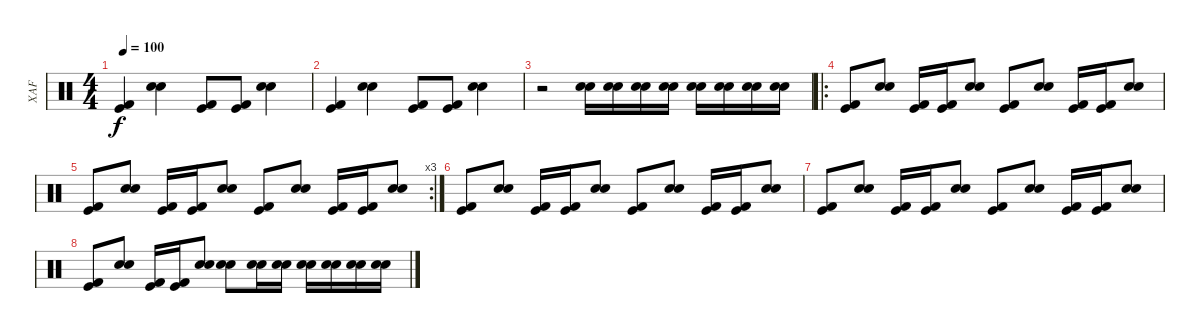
\track ("XAF" "XAF") {instrument percussion}
\staff {score}
\articulation defaults
\ts (4 4)
\tempo 100
\clef neutral
\ks c
("Kick (hit) 2" "Kick (hit)").4{dy f} ("Electric Snare (hit)" "Snare (hit) 2").4 ("Kick (hit) 2" "Kick (hit)").8 ("Kick (hit) 2" "Kick (hit)").8 ("Electric Snare (hit)" "Snare (hit) 2").4 |
("Kick (hit) 2" "Kick (hit)").4 ("Electric Snare (hit)" "Snare (hit) 2").4 ("Kick (hit) 2" "Kick (hit)").8 ("Kick (hit) 2" "Kick (hit)").8 ("Electric Snare (hit)" "Snare (hit) 2").4 |
r.2 ("Electric Snare (hit)" "Snare (hit) 2").16 ("Electric Snare (hit)" "Snare (hit) 2").16 ("Electric Snare (hit)" "Snare (hit) 2").16 ("Electric Snare (hit)" "Snare (hit) 2").16 ("Electric Snare (hit)" "Snare (hit) 2").16 ("Electric Snare (hit)" "Snare (hit) 2").16 ("Electric Snare (hit)" "Snare (hit) 2").16 ("Electric Snare (hit)" "Snare (hit) 2").16 |
\ro
("Kick (hit) 2" "Kick (hit)").8 ("Electric Snare (hit)" "Snare (hit) 2").8 ("Kick (hit) 2" "Kick (hit)").16 ("Kick (hit) 2" "Kick (hit)").16 ("Electric Snare (hit)" "Snare (hit) 2").8 ("Kick (hit) 2" "Kick (hit)").8 ("Electric Snare (hit)" "Snare (hit) 2").8 ("Kick (hit) 2" "Kick (hit)").16 ("Kick (hit) 2" "Kick (hit)").16 ("Electric Snare (hit)" "Snare (hit) 2").8 |
\rc 3
("Kick (hit) 2" "Kick (hit)").8 ("Electric Snare (hit)" "Snare (hit) 2").8 ("Kick (hit) 2" "Kick (hit)").16 ("Kick (hit) 2" "Kick (hit)").16 ("Electric Snare (hit)" "Snare (hit) 2").8 ("Kick (hit) 2" "Kick (hit)").8 ("Electric Snare (hit)" "Snare (hit) 2").8 ("Kick (hit) 2" "Kick (hit)").16 ("Kick (hit) 2" "Kick (hit)").16 ("Electric Snare (hit)" "Snare (hit) 2").8 |
("Kick (hit) 2" "Kick (hit)").8 ("Electric Snare (hit)" "Snare (hit) 2").8 ("Kick (hit) 2" "Kick (hit)").16 ("Kick (hit) 2" "Kick (hit)").16 ("Electric Snare (hit)" "Snare (hit) 2").8 ("Kick (hit) 2" "Kick (hit)").8 ("Electric Snare (hit)" "Snare (hit) 2").8 ("Kick (hit) 2" "Kick (hit)").16 ("Kick (hit) 2" "Kick (hit)").16 ("Electric Snare (hit)" "Snare (hit) 2").8 |
("Kick (hit) 2" "Kick (hit)").8 ("Electric Snare (hit)" "Snare (hit) 2").8 ("Kick (hit) 2" "Kick (hit)").16 ("Kick (hit) 2" "Kick (hit)").16 ("Electric Snare (hit)" "Snare (hit) 2").8 ("Kick (hit) 2" "Kick (hit)").8 ("Electric Snare (hit)" "Snare (hit) 2").8 ("Kick (hit) 2" "Kick (hit)").16 ("Kick (hit) 2" "Kick (hit)").16 ("Electric Snare (hit)" "Snare (hit) 2").8 |
("Kick (hit) 2" "Kick (hit)").8 ("Electric Snare (hit)" "Snare (hit) 2").8 ("Kick (hit) 2" "Kick (hit)").16 ("Kick (hit) 2" "Kick (hit)").16 ("Electric Snare (hit)" "Snare (hit) 2").8 ("Electric Snare (hit)" "Snare (hit) 2").8 ("Electric Snare (hit)" "Snare (hit) 2").16 ("Electric Snare (hit)" "Snare (hit) 2").16 ("Electric Snare (hit)" "Snare (hit) 2").16 ("Electric Snare (hit)" "Snare (hit) 2").16 ("Electric Snare (hit)" "Snare (hit) 2").16 ("Electric Snare (hit)" "Snare (hit) 2").16
